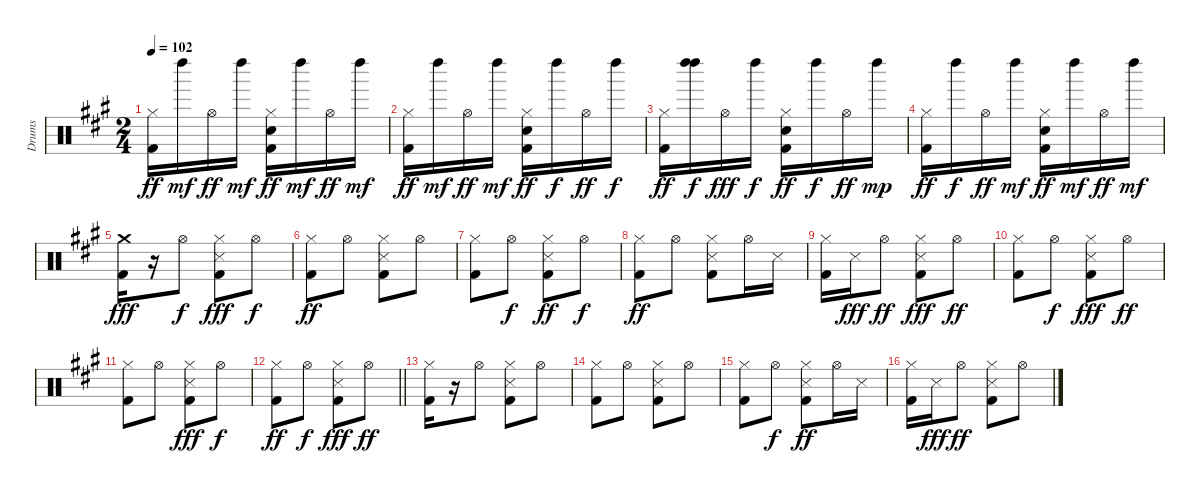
\track ("Drums" "Drums") {instrument percussion}
\staff {score}
\articulation defaults
\ts (2 4)
\tempo 102
\clef neutral
\ks a
("Kick (hit) 2" "Hi-Hat (closed)").16{dy ff} "Left Maraca (hit)".16{dy mf} "Hi-Hat (open)".16{dy ff} "Left Maraca (hit)".16{dy mf} ("Kick (hit) 2" "Electric Snare (hit)" "Hi-Hat (closed)").16{dy ff} "Left Maraca (hit)".16{dy mf} "Hi-Hat (open)".16{dy ff} "Left Maraca (hit)".16{dy mf} |
("Kick (hit) 2" "Hi-Hat (closed)").16{dy ff} "Left Maraca (hit)".16{dy mf} "Hi-Hat (open)".16{dy ff} "Left Maraca (hit)".16{dy mf} ("Kick (hit) 2" "Electric Snare (hit)" "Hi-Hat (closed)").16{dy ff} "Left Maraca (hit)".16{dy f} "Hi-Hat (open)".16{dy ff} "Left Maraca (hit)".16{dy f} |
("Kick (hit) 2" "Hi-Hat (closed)").16{dy ff} ("Left Maraca (hit)" "Left Maraca (hit)").16{dy f} "Hi-Hat (open)".16{dy fff} "Left Maraca (hit)".16{dy f} ("Kick (hit) 2" "Electric Snare (hit)" "Hi-Hat (closed)").16{dy ff} "Left Maraca (hit)".16{dy f} "Hi-Hat (open)".16{dy ff} "Left Maraca (hit)".16{dy mp} |
("Kick (hit) 2" "Hi-Hat (closed)").16{dy ff} "Left Maraca (hit)".16{dy f} "Hi-Hat (open)".16{dy ff} "Left Maraca (hit)".16{dy mf} ("Kick (hit) 2" "Electric Snare (hit)" "Hi-Hat (closed)").16{dy ff} "Left Maraca (hit)".16{dy mf} "Hi-Hat (open)".16{dy ff} "Left Maraca (hit)".16{dy mf} |
("Kick (hit) 2" "Crash medium (hit)").16{dy fff} r.16 "Hi-Hat (open)".8{dy f} ("Kick (hit) 2" "Snare (side stick) 3" "Hi-Hat (closed)").8{dy fff} "Hi-Hat (open)".8{dy f} |
("Kick (hit) 2" "Hi-Hat (closed)").8{dy ff} "Hi-Hat (open)".8 ("Kick (hit) 2" "Snare (side stick) 3" "Hi-Hat (closed)").8 "Hi-Hat (open)".8 |
("Kick (hit) 2" "Hi-Hat (closed)").8 "Hi-Hat (open)".8{dy f} ("Kick (hit) 2" "Snare (side stick) 3" "Hi-Hat (closed)").8{dy ff} "Hi-Hat (open)".8{dy f} |
("Kick (hit) 2" "Hi-Hat (closed)").8{dy ff} "Hi-Hat (open)".8 ("Kick (hit) 2" "Snare (side stick) 3" "Hi-Hat (closed)").8 "Hi-Hat (open)".16 "Snare (side stick) 3".16 |
("Kick (hit) 2" "Hi-Hat (closed)").16 "Snare (side stick) 3".16{dy fff} "Hi-Hat (open)".8{dy ff} ("Kick (hit) 2" "Snare (side stick) 3" "Hi-Hat (closed)").8{dy fff} "Hi-Hat (open)".8{dy ff} |
("Kick (hit) 2" "Hi-Hat (closed)").8 "Hi-Hat (open)".8{dy f} ("Kick (hit) 2" "Snare (side stick) 3" "Hi-Hat (closed)").8{dy fff} "Hi-Hat (open)".8{dy ff} |
("Kick (hit) 2" "Hi-Hat (closed)").8 "Hi-Hat (open)".8 ("Kick (hit) 2" "Snare (side stick) 3" "Hi-Hat (closed)").8{dy fff} "Hi-Hat (open)".8{dy f} |
\barLineRight lightlight
("Kick (hit) 2" "Hi-Hat (closed)").8{dy ff} "Hi-Hat (open)".8{dy f} ("Kick (hit) 2" "Snare (side stick) 3" "Hi-Hat (closed)").8{dy fff} "Hi-Hat (open)".8{dy ff} |
("Kick (hit) 2" "Hi-Hat (closed)").16 r.16 "Hi-Hat (open)".8 ("Kick (hit) 2" "Snare (side stick) 3" "Hi-Hat (closed)").8 "Hi-Hat (open)".8 |
("Kick (hit) 2" "Hi-Hat (closed)").8 "Hi-Hat (open)".8 ("Kick (hit) 2" "Snare (side stick) 3" "Hi-Hat (closed)").8 "Hi-Hat (open)".8 |
("Kick (hit) 2" "Hi-Hat (closed)").8 "Hi-Hat (open)".8{dy f} ("Kick (hit) 2" "Snare (side stick) 3" "Hi-Hat (closed)").8{dy ff} "Hi-Hat (open)".16 "Snare (side stick) 3".16 |
("Kick (hit) 2" "Hi-Hat (closed)").16 "Snare (side stick) 3".16{dy fff} "Hi-Hat (open)".8{dy ff} ("Kick (hit) 2" "Snare (side stick) 3" "Hi-Hat (closed)").8 "Hi-Hat (open)".8
